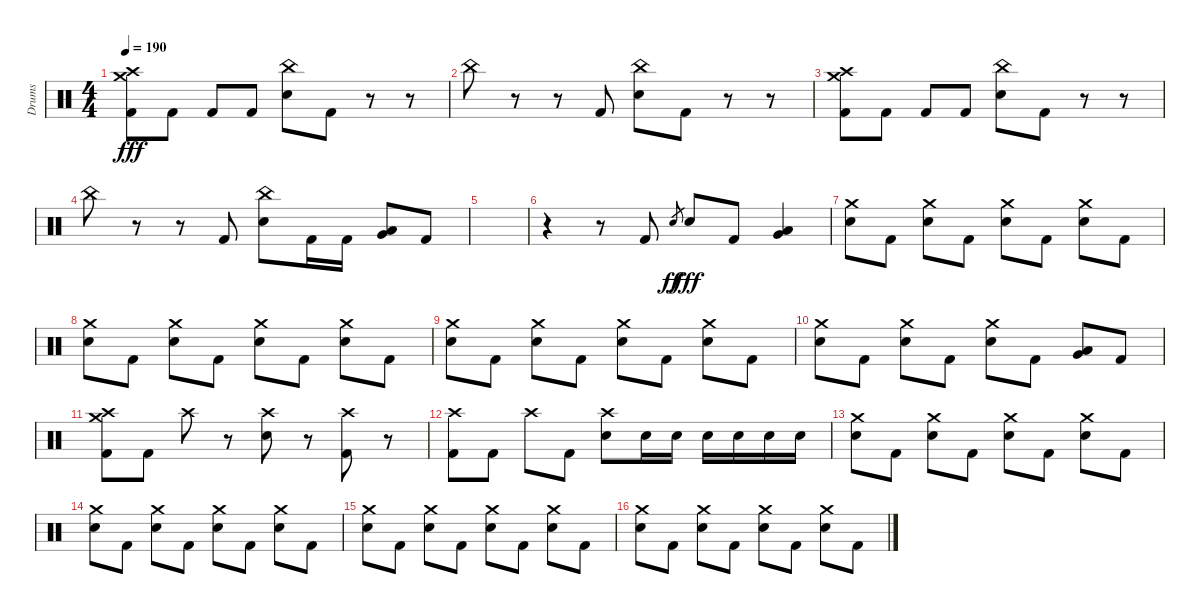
\track ("Drums" "Drums") {instrument percussion}
\staff {score}
\articulation defaults
\ts (4 4)
\tempo 190
\clef neutral
\ks c
("Crash medium (hit)" "Crash high (hit)" "Kick (hit) 2").8{dy fff} "Kick (hit) 2".8 "Kick (hit) 2".8 "Kick (hit) 2".8 ("China (hit)" "Electric Snare (hit)").8 "Kick (hit) 2".8 r.8 r.8 |
"China (hit)".8 r.8 r.8 "Kick (hit) 2".8 ("China (hit)" "Electric Snare (hit)").8 "Kick (hit) 2".8 r.8 r.8 |
("Crash medium (hit)" "Crash high (hit)" "Kick (hit) 2").8 "Kick (hit) 2".8 "Kick (hit) 2".8 "Kick (hit) 2".8 ("China (hit)" "Electric Snare (hit)").8 "Kick (hit) 2".8 r.8 r.8 |
"China (hit)".8 r.8 r.8 "Kick (hit) 2".8 ("China (hit)" "Electric Snare (hit)").8 "Kick (hit) 2".16 "Kick (hit) 2".16 ("Low Tom (hit)" "Very Low Tom (hit)").8 "Kick (hit) 2".8 |
|
r.4 r.8 "Kick (hit) 2".8 "Electric Snare (hit)".8{gr dy ff} "Electric Snare (hit)".8{dy fff} "Kick (hit) 2".8 ("Low Tom (hit)" "Very Low Tom (hit)").4 |
("Crash medium (hit)" "Electric Snare (hit)").8 "Kick (hit) 2".8 ("Crash medium (hit)" "Electric Snare (hit)").8 "Kick (hit) 2".8 ("Crash medium (hit)" "Electric Snare (hit)").8 "Kick (hit) 2".8 ("Crash medium (hit)" "Electric Snare (hit)").8 "Kick (hit) 2".8 |
("Crash medium (hit)" "Electric Snare (hit)").8 "Kick (hit) 2".8 ("Crash medium (hit)" "Electric Snare (hit)").8 "Kick (hit) 2".8 ("Crash medium (hit)" "Electric Snare (hit)").8 "Kick (hit) 2".8 ("Crash medium (hit)" "Electric Snare (hit)").8 "Kick (hit) 2".8 |
("Crash medium (hit)" "Electric Snare (hit)").8 "Kick (hit) 2".8 ("Crash medium (hit)" "Electric Snare (hit)").8 "Kick (hit) 2".8 ("Crash medium (hit)" "Electric Snare (hit)").8 "Kick (hit) 2".8 ("Crash medium (hit)" "Electric Snare (hit)").8 "Kick (hit) 2".8 |
("Crash medium (hit)" "Electric Snare (hit)").8 "Kick (hit) 2".8 ("Crash medium (hit)" "Electric Snare (hit)").8 "Kick (hit) 2".8 ("Crash medium (hit)" "Electric Snare (hit)").8 "Kick (hit) 2".8 ("Very Low Tom (hit)" "Low Floor Tom (hit)").8 "Kick (hit) 2".8 |
("Crash high (hit)" "Crash medium (hit)" "Kick (hit) 2").8 "Kick (hit) 2".8 "Crash high (hit)".8 r.8 ("Crash high (hit)" "Electric Snare (hit)").8 r.8 ("Crash high (hit)" "Kick (hit) 2").8 r.8 |
("Crash high (hit)" "Kick (hit) 2").8 "Kick (hit) 2".8 "Crash high (hit)".8 "Kick (hit) 2".8 ("Crash high (hit)" "Electric Snare (hit)").8 "Electric Snare (hit)".16 "Electric Snare (hit)".16 "Electric Snare (hit)".16 "Electric Snare (hit)".16 "Electric Snare (hit)".16 "Electric Snare (hit)".16 |
("Crash medium (hit)" "Electric Snare (hit)").8 "Kick (hit) 2".8 ("Crash medium (hit)" "Electric Snare (hit)").8 "Kick (hit) 2".8 ("Crash medium (hit)" "Electric Snare (hit)").8 "Kick (hit) 2".8 ("Crash medium (hit)" "Electric Snare (hit)").8 "Kick (hit) 2".8 |
("Crash medium (hit)" "Electric Snare (hit)").8 "Kick (hit) 2".8 ("Crash medium (hit)" "Electric Snare (hit)").8 "Kick (hit) 2".8 ("Crash medium (hit)" "Electric Snare (hit)").8 "Kick (hit) 2".8 ("Crash medium (hit)" "Electric Snare (hit)").8 "Kick (hit) 2".8 |
("Crash medium (hit)" "Electric Snare (hit)").8 "Kick (hit) 2".8 ("Crash medium (hit)" "Electric Snare (hit)").8 "Kick (hit) 2".8 ("Crash medium (hit)" "Electric Snare (hit)").8 "Kick (hit) 2".8 ("Crash medium (hit)" "Electric Snare (hit)").8 "Kick (hit) 2".8 |
("Crash medium (hit)" "Electric Snare (hit)").8 "Kick (hit) 2".8 ("Crash medium (hit)" "Electric Snare (hit)").8 "Kick (hit) 2".8 ("Crash medium (hit)" "Electric Snare (hit)").8 "Kick (hit) 2".8 ("Crash medium (hit)" "Electric Snare (hit)").8 "Kick (hit) 2".8
